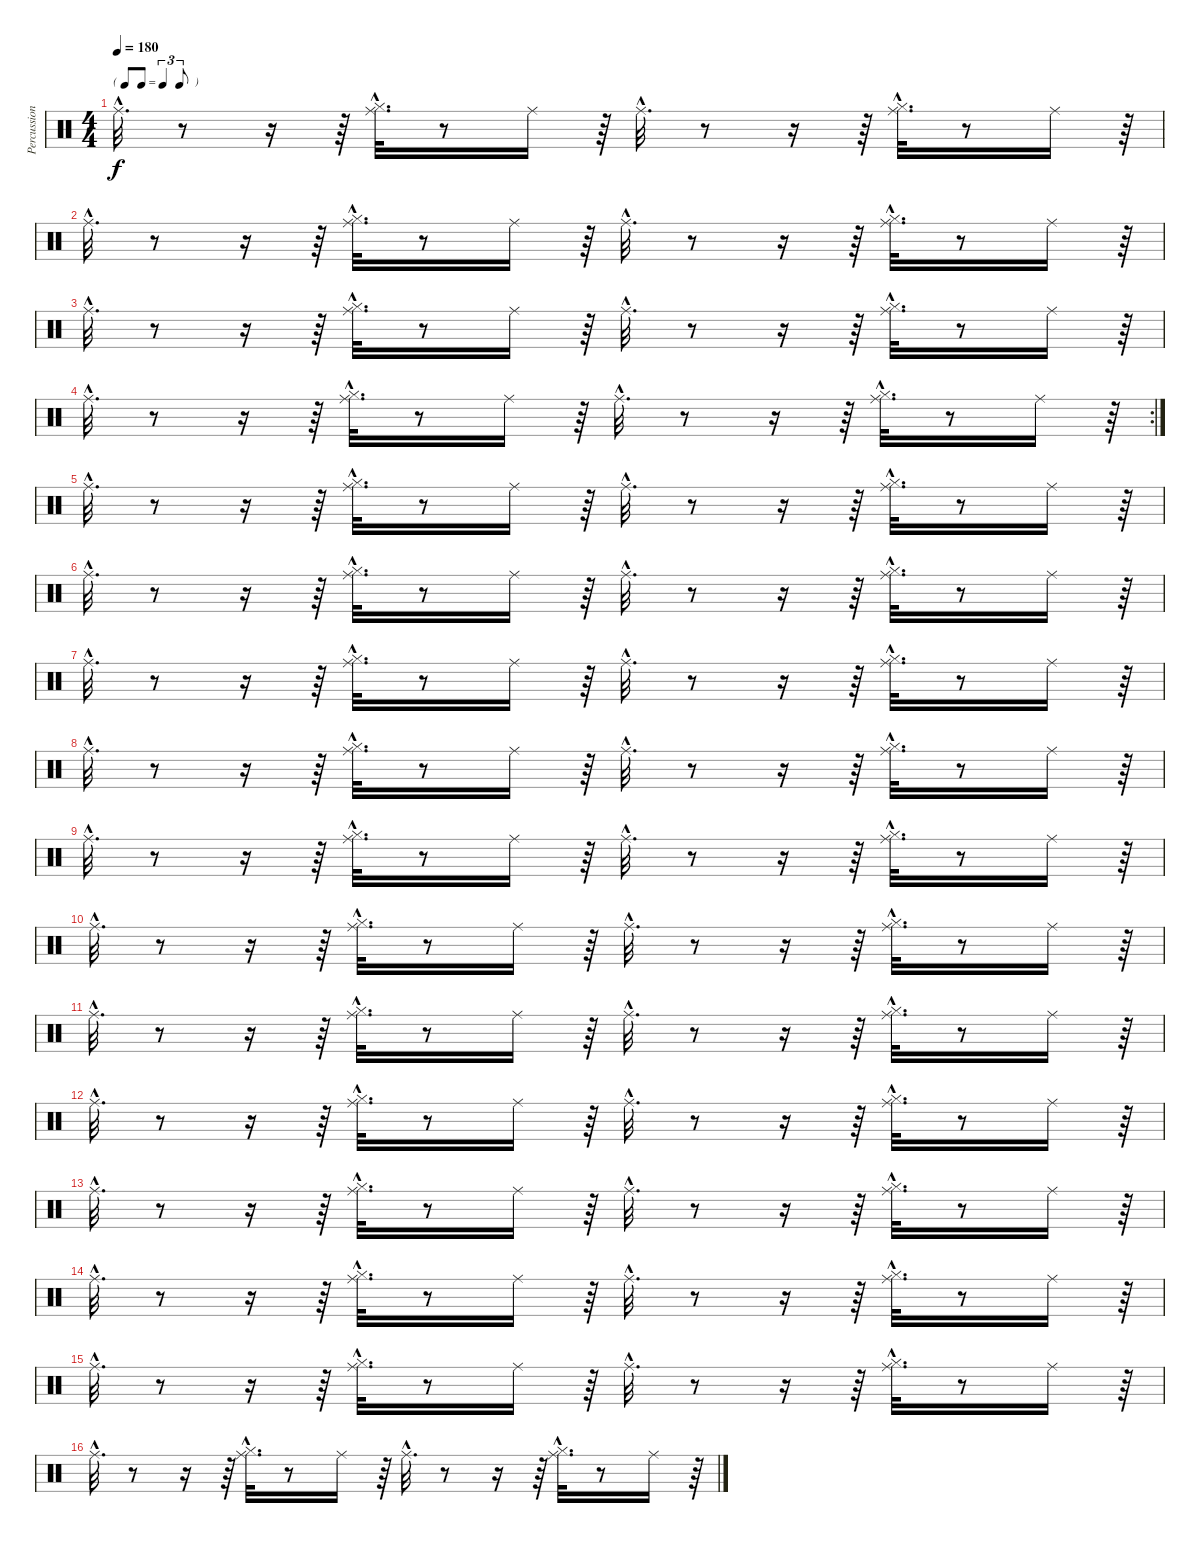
\track ("Percussions" "Percussion") {instrument percussion}
\staff {score}
\articulation defaults
\ts (4 4)
\tf triplet8th
\tempo 180
\clef neutral
\ks c "Ride (middle)"{hac}.32{d dy f}
r.8 r.16 r.64 ("Hi-Hat (closed)"{hac} "Ride (middle)"{hac}).32{d} r.8 "Ride (middle)".16 r.64 "Ride (middle)"{hac}.32{d} r.8 r.16 r.64 ("Hi-Hat (closed)"{hac} "Ride (middle)"{hac}).32{d} r.8 "Ride (middle)".16 r.64 |
"Ride (middle)"{hac}.32{d} r.8 r.16 r.64 ("Hi-Hat (closed)"{hac} "Ride (middle)"{hac}).32{d} r.8 "Ride (middle)".16 r.64 "Ride (middle)"{hac}.32{d} r.8 r.16 r.64 ("Hi-Hat (closed)"{hac} "Ride (middle)"{hac}).32{d} r.8 "Ride (middle)".16 r.64 |
"Ride (middle)"{hac}.32{d} r.8 r.16 r.64 ("Hi-Hat (closed)"{hac} "Ride (middle)"{hac}).32{d} r.8 "Ride (middle)".16 r.64 "Ride (middle)"{hac}.32{d} r.8 r.16 r.64 ("Hi-Hat (closed)"{hac} "Ride (middle)"{hac}).32{d} r.8 "Ride (middle)".16 r.64 |
\rc 2 "Ride (middle)"{hac}.32{d}
r.8 r.16 r.64 ("Hi-Hat (closed)"{hac} "Ride (middle)"{hac}).32{d} r.8 "Ride (middle)".16 r.64 "Ride (middle)"{hac}.32{d} r.8 r.16 r.64 ("Hi-Hat (closed)"{hac} "Ride (middle)"{hac}).32{d} r.8 "Ride (middle)".16 r.64 |
"Ride (middle)"{hac}.32{d} r.8 r.16 r.64 ("Hi-Hat (closed)"{hac} "Ride (middle)"{hac}).32{d} r.8 "Ride (middle)".16 r.64 "Ride (middle)"{hac}.32{d} r.8 r.16 r.64 ("Hi-Hat (closed)"{hac} "Ride (middle)"{hac}).32{d} r.8 "Ride (middle)".16 r.64 |
"Ride (middle)"{hac}.32{d} r.8 r.16 r.64 ("Hi-Hat (closed)"{hac} "Ride (middle)"{hac}).32{d} r.8 "Ride (middle)".16 r.64 "Ride (middle)"{hac}.32{d} r.8 r.16 r.64 ("Hi-Hat (closed)"{hac} "Ride (middle)"{hac}).32{d} r.8 "Ride (middle)".16 r.64 |
"Ride (middle)"{hac}.32{d} r.8 r.16 r.64 ("Hi-Hat (closed)"{hac} "Ride (middle)"{hac}).32{d} r.8 "Ride (middle)".16 r.64 "Ride (middle)"{hac}.32{d} r.8 r.16 r.64 ("Hi-Hat (closed)"{hac} "Ride (middle)"{hac}).32{d} r.8 "Ride (middle)".16 r.64 |
"Ride (middle)"{hac}.32{d} r.8 r.16 r.64 ("Hi-Hat (closed)"{hac} "Ride (middle)"{hac}).32{d} r.8 "Ride (middle)".16 r.64 "Ride (middle)"{hac}.32{d} r.8 r.16 r.64 ("Hi-Hat (closed)"{hac} "Ride (middle)"{hac}).32{d} r.8 "Ride (middle)".16 r.64 |
"Ride (middle)"{hac}.32{d} r.8 r.16 r.64 ("Hi-Hat (closed)"{hac} "Ride (middle)"{hac}).32{d} r.8 "Ride (middle)".16 r.64 "Ride (middle)"{hac}.32{d} r.8 r.16 r.64 ("Hi-Hat (closed)"{hac} "Ride (middle)"{hac}).32{d} r.8 "Ride (middle)".16 r.64 |
"Ride (middle)"{hac}.32{d} r.8 r.16 r.64 ("Hi-Hat (closed)"{hac} "Ride (middle)"{hac}).32{d} r.8 "Ride (middle)".16 r.64 "Ride (middle)"{hac}.32{d} r.8 r.16 r.64 ("Hi-Hat (closed)"{hac} "Ride (middle)"{hac}).32{d} r.8 "Ride (middle)".16 r.64 |
"Ride (middle)"{hac}.32{d} r.8 r.16 r.64 ("Hi-Hat (closed)"{hac} "Ride (middle)"{hac}).32{d} r.8 "Ride (middle)".16 r.64 "Ride (middle)"{hac}.32{d} r.8 r.16 r.64 ("Hi-Hat (closed)"{hac} "Ride (middle)"{hac}).32{d} r.8 "Ride (middle)".16 r.64 |
"Ride (middle)"{hac}.32{d} r.8 r.16 r.64 ("Hi-Hat (closed)"{hac} "Ride (middle)"{hac}).32{d} r.8 "Ride (middle)".16 r.64 "Ride (middle)"{hac}.32{d} r.8 r.16 r.64 ("Hi-Hat (closed)"{hac} "Ride (middle)"{hac}).32{d} r.8 "Ride (middle)".16 r.64 |
"Ride (middle)"{hac}.32{d} r.8 r.16 r.64 ("Hi-Hat (closed)"{hac} "Ride (middle)"{hac}).32{d} r.8 "Ride (middle)".16 r.64 "Ride (middle)"{hac}.32{d} r.8 r.16 r.64 ("Hi-Hat (closed)"{hac} "Ride (middle)"{hac}).32{d} r.8 "Ride (middle)".16 r.64 |
"Ride (middle)"{hac}.32{d} r.8 r.16 r.64 ("Hi-Hat (closed)"{hac} "Ride (middle)"{hac}).32{d} r.8 "Ride (middle)".16 r.64 "Ride (middle)"{hac}.32{d} r.8 r.16 r.64 ("Hi-Hat (closed)"{hac} "Ride (middle)"{hac}).32{d} r.8 "Ride (middle)".16 r.64 |
"Ride (middle)"{hac}.32{d} r.8 r.16 r.64 ("Hi-Hat (closed)"{hac} "Ride (middle)"{hac}).32{d} r.8 "Ride (middle)".16 r.64 "Ride (middle)"{hac}.32{d} r.8 r.16 r.64 ("Hi-Hat (closed)"{hac} "Ride (middle)"{hac}).32{d} r.8 "Ride (middle)".16 r.64 |
"Ride (middle)"{hac}.32{d} r.8 r.16 r.64 ("Hi-Hat (closed)"{hac} "Ride (middle)"{hac}).32{d} r.8 "Ride (middle)".16 r.64 "Ride (middle)"{hac}.32{d} r.8 r.16 r.64 ("Hi-Hat (closed)"{hac} "Ride (middle)"{hac}).32{d} r.8 "Ride (middle)".16 r.64
